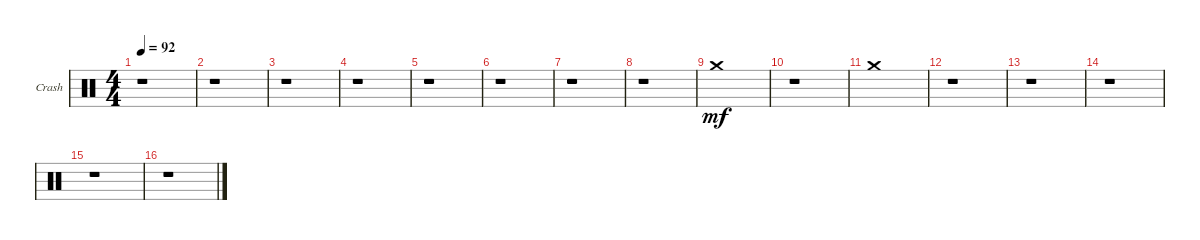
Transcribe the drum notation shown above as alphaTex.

\bracketExtendMode groupsimilarinstruments
\firstSystemTrackNameOrientation horizontal
\otherSystemsTrackNameOrientation horizontal
\track (" Crash" " Crash") {instrument percussion}
\staff {score}
\articulation defaults
\ts (4 4)
\tempo 92
\clef neutral
\ks c
r.1{dy mf} |
r.1 |
r.1 |
r.1 |
r.1 |
r.1 |
r.1 |
r.1 |
"Crash medium (hit)".1 |
r.1 |
"Crash medium (hit)".1 |
r.1 |
r.1 |
r.1 |
r.1 |
r.1
